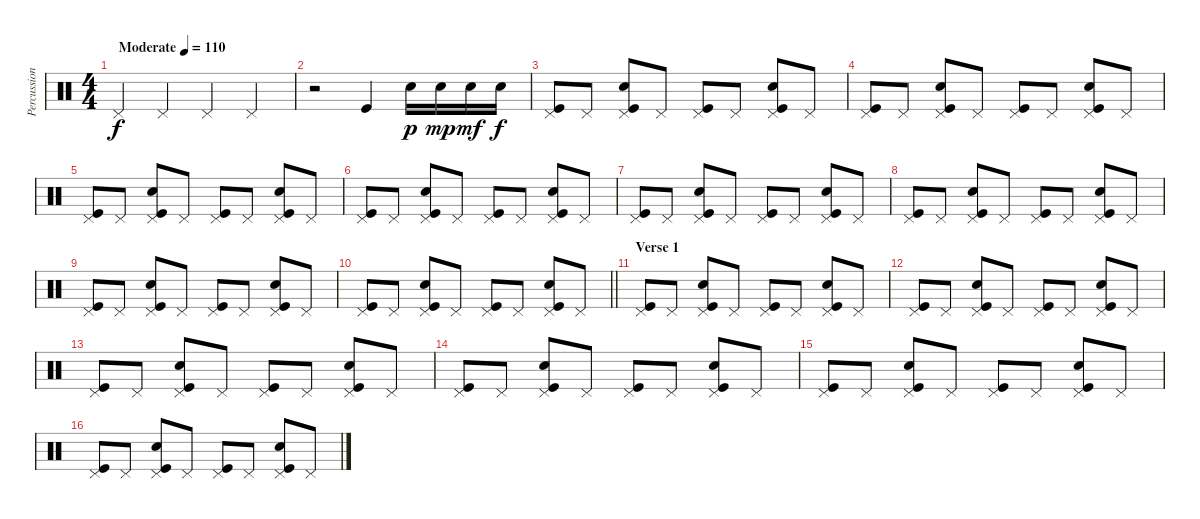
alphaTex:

\track ("Percussion" "Percussion") {instrument percussion}
\staff {score}
\articulation defaults
\ts (4 4)
\tempo (110 "Moderate")
\clef neutral
\ks c "Pedal Hi-Hat (hit)".4{dy f} "Pedal Hi-Hat (hit)".4 "Pedal Hi-Hat (hit)".4 "Pedal Hi-Hat (hit)".4
|
r.2 "Kick (hit)".4 "Snare (hit) 2".16{dy p} "Snare (hit) 2".16{dy mp} "Snare (hit) 2".16{dy mf} "Snare (hit) 2".16{dy f} |
("Pedal Hi-Hat (hit)" "Kick (hit)").8 "Pedal Hi-Hat (hit)".8 ("Pedal Hi-Hat (hit)" "Snare (hit) 2" "Kick (hit)").8 "Pedal Hi-Hat (hit)".8 ("Pedal Hi-Hat (hit)" "Kick (hit)").8 "Pedal Hi-Hat (hit)".8 ("Pedal Hi-Hat (hit)" "Snare (hit) 2" "Kick (hit)").8 "Pedal Hi-Hat (hit)".8 |
("Pedal Hi-Hat (hit)" "Kick (hit)").8 "Pedal Hi-Hat (hit)".8 ("Pedal Hi-Hat (hit)" "Snare (hit) 2" "Kick (hit)").8 "Pedal Hi-Hat (hit)".8 ("Pedal Hi-Hat (hit)" "Kick (hit)").8 "Pedal Hi-Hat (hit)".8 ("Pedal Hi-Hat (hit)" "Snare (hit) 2" "Kick (hit)").8 "Pedal Hi-Hat (hit)".8 |
("Pedal Hi-Hat (hit)" "Kick (hit)").8 "Pedal Hi-Hat (hit)".8 ("Pedal Hi-Hat (hit)" "Snare (hit) 2" "Kick (hit)").8 "Pedal Hi-Hat (hit)".8 ("Pedal Hi-Hat (hit)" "Kick (hit)").8 "Pedal Hi-Hat (hit)".8 ("Pedal Hi-Hat (hit)" "Snare (hit) 2" "Kick (hit)").8 "Pedal Hi-Hat (hit)".8 |
("Pedal Hi-Hat (hit)" "Kick (hit)").8 "Pedal Hi-Hat (hit)".8 ("Pedal Hi-Hat (hit)" "Snare (hit) 2" "Kick (hit)").8 "Pedal Hi-Hat (hit)".8 ("Pedal Hi-Hat (hit)" "Kick (hit)").8 "Pedal Hi-Hat (hit)".8 ("Pedal Hi-Hat (hit)" "Snare (hit) 2" "Kick (hit)").8 "Pedal Hi-Hat (hit)".8 |
("Pedal Hi-Hat (hit)" "Kick (hit)").8 "Pedal Hi-Hat (hit)".8 ("Pedal Hi-Hat (hit)" "Snare (hit) 2" "Kick (hit)").8 "Pedal Hi-Hat (hit)".8 ("Pedal Hi-Hat (hit)" "Kick (hit)").8 "Pedal Hi-Hat (hit)".8 ("Pedal Hi-Hat (hit)" "Snare (hit) 2" "Kick (hit)").8 "Pedal Hi-Hat (hit)".8 |
("Pedal Hi-Hat (hit)" "Kick (hit)").8 "Pedal Hi-Hat (hit)".8 ("Pedal Hi-Hat (hit)" "Snare (hit) 2" "Kick (hit)").8 "Pedal Hi-Hat (hit)".8 ("Pedal Hi-Hat (hit)" "Kick (hit)").8 "Pedal Hi-Hat (hit)".8 ("Pedal Hi-Hat (hit)" "Snare (hit) 2" "Kick (hit)").8 "Pedal Hi-Hat (hit)".8 |
("Pedal Hi-Hat (hit)" "Kick (hit)").8 "Pedal Hi-Hat (hit)".8 ("Pedal Hi-Hat (hit)" "Snare (hit) 2" "Kick (hit)").8 "Pedal Hi-Hat (hit)".8 ("Pedal Hi-Hat (hit)" "Kick (hit)").8 "Pedal Hi-Hat (hit)".8 ("Pedal Hi-Hat (hit)" "Snare (hit) 2" "Kick (hit)").8 "Pedal Hi-Hat (hit)".8 |
\barLineRight lightlight
("Pedal Hi-Hat (hit)" "Kick (hit)").8 "Pedal Hi-Hat (hit)".8 ("Pedal Hi-Hat (hit)" "Snare (hit) 2" "Kick (hit)").8 "Pedal Hi-Hat (hit)".8 ("Pedal Hi-Hat (hit)" "Kick (hit)").8 "Pedal Hi-Hat (hit)".8 ("Pedal Hi-Hat (hit)" "Snare (hit) 2" "Kick (hit)").8 "Pedal Hi-Hat (hit)".8 |
\section ("" "Verse 1")
("Pedal Hi-Hat (hit)" "Kick (hit)").8 "Pedal Hi-Hat (hit)".8 ("Pedal Hi-Hat (hit)" "Snare (hit) 2" "Kick (hit)").8 "Pedal Hi-Hat (hit)".8 ("Pedal Hi-Hat (hit)" "Kick (hit)").8 "Pedal Hi-Hat (hit)".8 ("Pedal Hi-Hat (hit)" "Snare (hit) 2" "Kick (hit)").8 "Pedal Hi-Hat (hit)".8 |
("Pedal Hi-Hat (hit)" "Kick (hit)").8 "Pedal Hi-Hat (hit)".8 ("Pedal Hi-Hat (hit)" "Snare (hit) 2" "Kick (hit)").8 "Pedal Hi-Hat (hit)".8 ("Pedal Hi-Hat (hit)" "Kick (hit)").8 "Pedal Hi-Hat (hit)".8 ("Pedal Hi-Hat (hit)" "Snare (hit) 2" "Kick (hit)").8 "Pedal Hi-Hat (hit)".8 |
("Pedal Hi-Hat (hit)" "Kick (hit)").8 "Pedal Hi-Hat (hit)".8 ("Pedal Hi-Hat (hit)" "Snare (hit) 2" "Kick (hit)").8 "Pedal Hi-Hat (hit)".8 ("Pedal Hi-Hat (hit)" "Kick (hit)").8 "Pedal Hi-Hat (hit)".8 ("Pedal Hi-Hat (hit)" "Snare (hit) 2" "Kick (hit)").8 "Pedal Hi-Hat (hit)".8 |
("Pedal Hi-Hat (hit)" "Kick (hit)").8 "Pedal Hi-Hat (hit)".8 ("Pedal Hi-Hat (hit)" "Snare (hit) 2" "Kick (hit)").8 "Pedal Hi-Hat (hit)".8 ("Pedal Hi-Hat (hit)" "Kick (hit)").8 "Pedal Hi-Hat (hit)".8 ("Pedal Hi-Hat (hit)" "Snare (hit) 2" "Kick (hit)").8 "Pedal Hi-Hat (hit)".8 |
("Pedal Hi-Hat (hit)" "Kick (hit)").8 "Pedal Hi-Hat (hit)".8 ("Pedal Hi-Hat (hit)" "Snare (hit) 2" "Kick (hit)").8 "Pedal Hi-Hat (hit)".8 ("Pedal Hi-Hat (hit)" "Kick (hit)").8 "Pedal Hi-Hat (hit)".8 ("Pedal Hi-Hat (hit)" "Snare (hit) 2" "Kick (hit)").8 "Pedal Hi-Hat (hit)".8 |
("Pedal Hi-Hat (hit)" "Kick (hit)").8 "Pedal Hi-Hat (hit)".8 ("Pedal Hi-Hat (hit)" "Snare (hit) 2" "Kick (hit)").8 "Pedal Hi-Hat (hit)".8 ("Pedal Hi-Hat (hit)" "Kick (hit)").8 "Pedal Hi-Hat (hit)".8 ("Pedal Hi-Hat (hit)" "Snare (hit) 2" "Kick (hit)").8 "Pedal Hi-Hat (hit)".8
